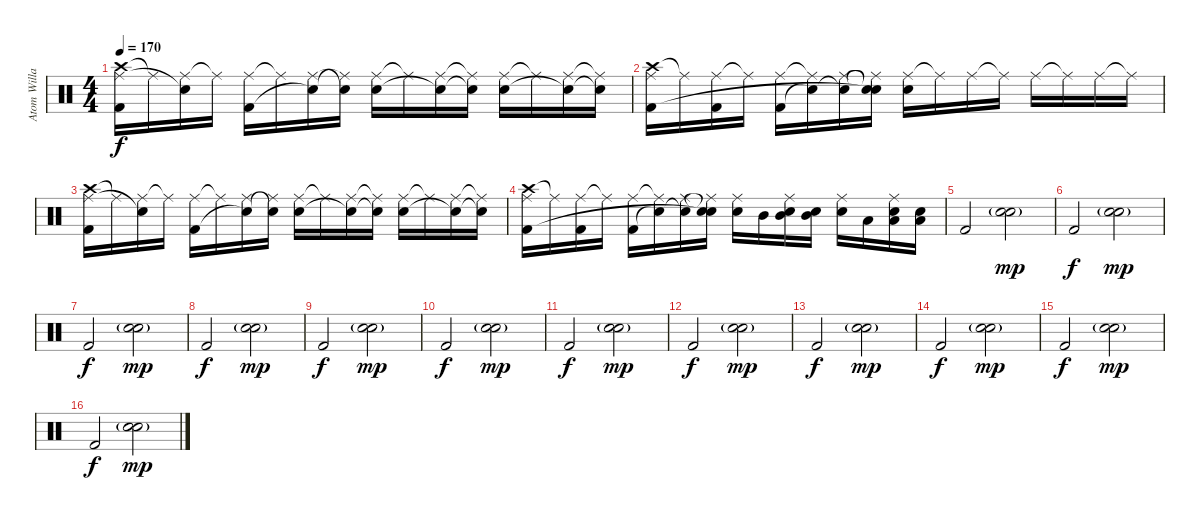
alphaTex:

\track ("Atom Willard" "Atom Willa") {instrument percussion}
\staff {score}
\articulation defaults
\ts (4 4)
\tempo 170
\clef neutral
\ks c
("Crash high (hit)" "Ride (middle)" "Kick (hit) 2").16{dy f} "Ride (middle)"{t}.16 ("Ride (middle)" "Snare (hit)"{t}).16 "Ride (middle)"{t}.16 ("Ride (middle)" "Kick (hit) 2").16 "Ride (middle)"{t}.16 ("Ride (middle)" "Snare (hit)"{t}).16 ("Snare (hit)"{t} "Ride (middle)"{t}).16 ("Ride (middle)" "Electric Snare (hit)").16 "Ride (middle)"{t}.16 ("Ride (middle)" "Electric Snare (hit)"{t}).16 ("Ride (middle)"{t} "Snare (hit)"{t}).16 ("Ride (middle)" "Electric Snare (hit)").16 "Ride (middle)"{t}.16 ("Ride (middle)" "Snare (hit)"{t}).16 ("Ride (middle)"{t} "Snare (hit)"{t}).16 |
("Crash high (hit)" "Ride (middle)" "Kick (hit) 2").16 "Ride (middle)"{t}.16 ("Ride (middle)" "Kick (hit) 2").16 "Ride (middle)"{t}.16 ("Ride (middle)" "Kick (hit) 2").16 ("Ride (middle)"{t} "Snare (hit)"{t}).16 ("Ride (middle)" "Snare (hit)"{t}).16 ("Snare (hit)"{t} "Ride (middle)"{t} "Snare (hit)"{t}).16 ("Ride (middle)" "Electric Snare (hit)").16 "Ride (middle)"{t}.16 "Ride (middle)".16 "Ride (middle)"{t}.16 "Ride (middle)".16 "Ride (middle)"{t}.16 "Ride (middle)".16 "Ride (middle)"{t}.16 |
("Crash high (hit)" "Ride (middle)" "Kick (hit) 2").16 "Ride (middle)"{t}.16 ("Ride (middle)" "Snare (hit)"{t}).16 "Ride (middle)"{t}.16 ("Ride (middle)" "Kick (hit) 2").16 "Ride (middle)"{t}.16 ("Ride (middle)" "Snare (hit)"{t}).16 ("Snare (hit)"{t} "Ride (middle)"{t}).16 ("Ride (middle)" "Electric Snare (hit)").16 "Ride (middle)"{t}.16 ("Ride (middle)" "Electric Snare (hit)"{t}).16 ("Ride (middle)"{t} "Snare (hit)"{t}).16 ("Ride (middle)" "Electric Snare (hit)").16 "Ride (middle)"{t}.16 ("Ride (middle)" "Snare (hit)"{t}).16 ("Ride (middle)"{t} "Snare (hit)"{t}).16 |
("Crash high (hit)" "Ride (middle)" "Kick (hit) 2").16 "Ride (middle)"{t}.16 ("Ride (middle)" "Kick (hit) 2").16 "Ride (middle)"{t}.16 ("Ride (middle)" "Kick (hit) 2").16 ("Ride (middle)"{t} "Snare (hit)"{t}).16 ("Ride (middle)" "Snare (hit)"{t}).16 ("Snare (hit)"{t} "Ride (middle)"{t} "Snare (hit)"{t}).16 ("Ride (middle)" "Electric Snare (hit)").16 "Mid Tom (hit)".16 ("Ride (middle)" "Electric Snare (hit)" "Mid Tom (hit)").16 ("Electric Snare (hit)" "Mid Tom (hit)").16 ("Ride (middle)" "Electric Snare (hit)").16 "Low Tom (hit)".16 ("Ride (middle)" "Electric Snare (hit)" "Low Tom (hit)").16 ("Electric Snare (hit)" "Low Tom (hit)").16 |
"Kick (hit) 2".2{volume 10} ("Electric Snare (hit)"{g} "Snare (hit) 2"{g}).2{dy mp} |
"Kick (hit) 2".2{dy f volume 10} ("Electric Snare (hit)"{g} "Snare (hit) 2"{g}).2{dy mp} |
"Kick (hit) 2".2{dy f volume 12} ("Electric Snare (hit)"{g} "Snare (hit) 2"{g}).2{dy mp} |
"Kick (hit) 2".2{dy f volume 8} ("Electric Snare (hit)"{g} "Snare (hit) 2"{g}).2{dy mp} |
"Kick (hit) 2".2{dy f volume 10} ("Electric Snare (hit)"{g} "Snare (hit) 2"{g}).2{dy mp} |
"Kick (hit) 2".2{dy f volume 10} ("Electric Snare (hit)"{g} "Snare (hit) 2"{g}).2{dy mp} |
"Kick (hit) 2".2{dy f volume 12} ("Electric Snare (hit)"{g} "Snare (hit) 2"{g}).2{dy mp} |
"Kick (hit) 2".2{dy f volume 8} ("Electric Snare (hit)"{g} "Snare (hit) 2"{g}).2{dy mp} |
"Kick (hit) 2".2{dy f volume 10} ("Electric Snare (hit)"{g} "Snare (hit) 2"{g}).2{dy mp} |
"Kick (hit) 2".2{dy f volume 10} ("Electric Snare (hit)"{g} "Snare (hit) 2"{g}).2{dy mp} |
"Kick (hit) 2".2{dy f volume 12} ("Electric Snare (hit)"{g} "Snare (hit) 2"{g}).2{dy mp} |
"Kick (hit) 2".2{dy f volume 8} ("Electric Snare (hit)"{g} "Snare (hit) 2"{g}).2{dy mp}
